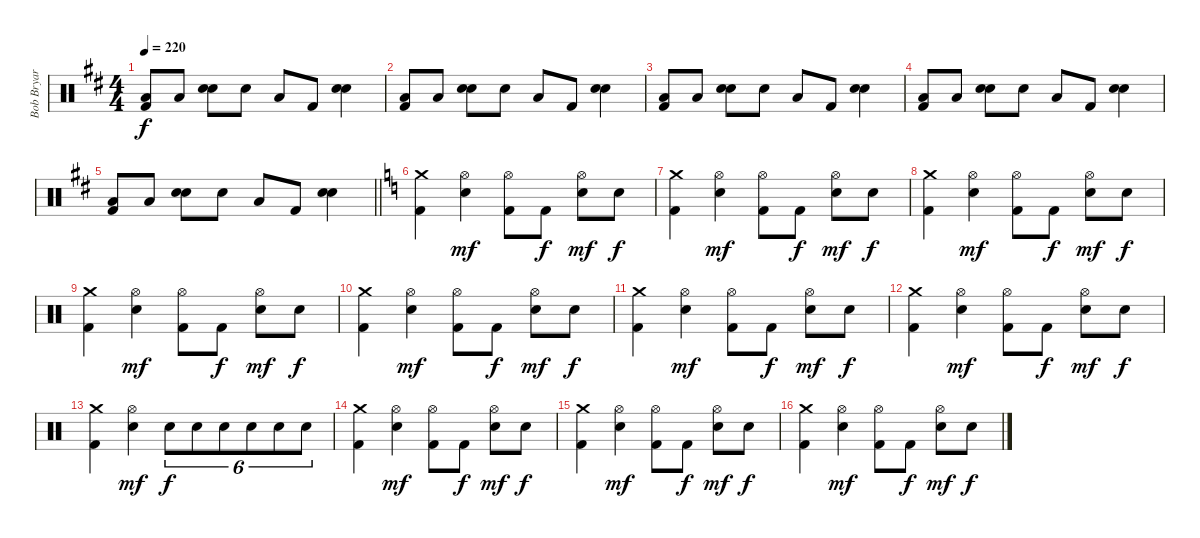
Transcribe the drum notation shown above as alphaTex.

\track ("Bob Bryar" "Bob Bryar") {instrument percussion}
\staff {score}
\articulation defaults
\ts (4 4)
\tempo 220
\clef neutral
\ks d
("Low Floor Tom (hit)" "Kick (hit) 2").8{dy f} "Low Floor Tom (hit)".8 ("Hand Clap (hit)" "Electric Snare (hit)").8 "Hand Clap (hit)".8 "Low Floor Tom (hit)".8 "Kick (hit) 2".8 ("Hand Clap (hit)" "Electric Snare (hit)").4 |
("Low Floor Tom (hit)" "Kick (hit) 2").8 "Low Floor Tom (hit)".8 ("Hand Clap (hit)" "Electric Snare (hit)").8 "Hand Clap (hit)".8 "Low Floor Tom (hit)".8 "Kick (hit) 2".8 ("Hand Clap (hit)" "Electric Snare (hit)").4 |
("Low Floor Tom (hit)" "Kick (hit) 2").8 "Low Floor Tom (hit)".8 ("Hand Clap (hit)" "Electric Snare (hit)").8 "Hand Clap (hit)".8 "Low Floor Tom (hit)".8 "Kick (hit) 2".8 ("Hand Clap (hit)" "Electric Snare (hit)").4 |
("Low Floor Tom (hit)" "Kick (hit) 2").8 "Low Floor Tom (hit)".8 ("Hand Clap (hit)" "Electric Snare (hit)").8 "Hand Clap (hit)".8 "Low Floor Tom (hit)".8 "Kick (hit) 2".8 ("Hand Clap (hit)" "Electric Snare (hit)").4 |
\barLineRight lightlight
("Low Floor Tom (hit)" "Kick (hit) 2").8 "Low Floor Tom (hit)".8 ("Hand Clap (hit)" "Electric Snare (hit)").8 "Hand Clap (hit)".8 "Low Floor Tom (hit)".8 "Kick (hit) 2".8 ("Hand Clap (hit)" "Electric Snare (hit)").4 |
\ks c
("Crash medium (hit)" "Kick (hit) 2").4 ("Hi-Hat (open)" "Electric Snare (hit)").4{dy mf} ("Hi-Hat (open)" "Kick (hit) 2").8 "Kick (hit) 2".8{dy f} ("Hi-Hat (open)" "Electric Snare (hit)").8{dy mf} "Electric Snare (hit)".8{dy f} |
("Crash medium (hit)" "Kick (hit) 2").4 ("Hi-Hat (open)" "Electric Snare (hit)").4{dy mf} ("Hi-Hat (open)" "Kick (hit) 2").8 "Kick (hit) 2".8{dy f} ("Hi-Hat (open)" "Electric Snare (hit)").8{dy mf} "Electric Snare (hit)".8{dy f} |
("Crash medium (hit)" "Kick (hit) 2").4 ("Hi-Hat (open)" "Electric Snare (hit)").4{dy mf} ("Hi-Hat (open)" "Kick (hit) 2").8 "Kick (hit) 2".8{dy f} ("Hi-Hat (open)" "Electric Snare (hit)").8{dy mf} "Electric Snare (hit)".8{dy f} |
("Crash medium (hit)" "Kick (hit) 2").4 ("Hi-Hat (open)" "Electric Snare (hit)").4{dy mf} ("Hi-Hat (open)" "Kick (hit) 2").8 "Kick (hit) 2".8{dy f} ("Hi-Hat (open)" "Electric Snare (hit)").8{dy mf} "Electric Snare (hit)".8{dy f} |
("Crash medium (hit)" "Kick (hit) 2").4 ("Hi-Hat (open)" "Electric Snare (hit)").4{dy mf} ("Hi-Hat (open)" "Kick (hit) 2").8 "Kick (hit) 2".8{dy f} ("Hi-Hat (open)" "Electric Snare (hit)").8{dy mf} "Electric Snare (hit)".8{dy f} |
("Crash medium (hit)" "Kick (hit) 2").4 ("Hi-Hat (open)" "Electric Snare (hit)").4{dy mf} ("Hi-Hat (open)" "Kick (hit) 2").8 "Kick (hit) 2".8{dy f} ("Hi-Hat (open)" "Electric Snare (hit)").8{dy mf} "Electric Snare (hit)".8{dy f} |
("Crash medium (hit)" "Kick (hit) 2").4 ("Hi-Hat (open)" "Electric Snare (hit)").4{dy mf} ("Hi-Hat (open)" "Kick (hit) 2").8 "Kick (hit) 2".8{dy f} ("Hi-Hat (open)" "Electric Snare (hit)").8{dy mf} "Electric Snare (hit)".8{dy f} |
("Crash medium (hit)" "Kick (hit) 2").4 ("Hi-Hat (open)" "Electric Snare (hit)").4{dy mf} "Electric Snare (hit)".8{tu (6 4) dy f} "Electric Snare (hit)".8{tu (6 4)} "Electric Snare (hit)".8{tu (6 4)} "Electric Snare (hit)".8{tu (6 4)} "Electric Snare (hit)".8{tu (6 4)} "Electric Snare (hit)".8{tu (6 4)} |
("Crash medium (hit)" "Kick (hit) 2").4 ("Hi-Hat (open)" "Electric Snare (hit)").4{dy mf} ("Hi-Hat (open)" "Kick (hit) 2").8 "Kick (hit) 2".8{dy f} ("Hi-Hat (open)" "Electric Snare (hit)").8{dy mf} "Electric Snare (hit)".8{dy f} |
("Crash medium (hit)" "Kick (hit) 2").4 ("Hi-Hat (open)" "Electric Snare (hit)").4{dy mf} ("Hi-Hat (open)" "Kick (hit) 2").8 "Kick (hit) 2".8{dy f} ("Hi-Hat (open)" "Electric Snare (hit)").8{dy mf} "Electric Snare (hit)".8{dy f} |
("Crash medium (hit)" "Kick (hit) 2").4 ("Hi-Hat (open)" "Electric Snare (hit)").4{dy mf} ("Hi-Hat (open)" "Kick (hit) 2").8 "Kick (hit) 2".8{dy f} ("Hi-Hat (open)" "Electric Snare (hit)").8{dy mf} "Electric Snare (hit)".8{dy f}
